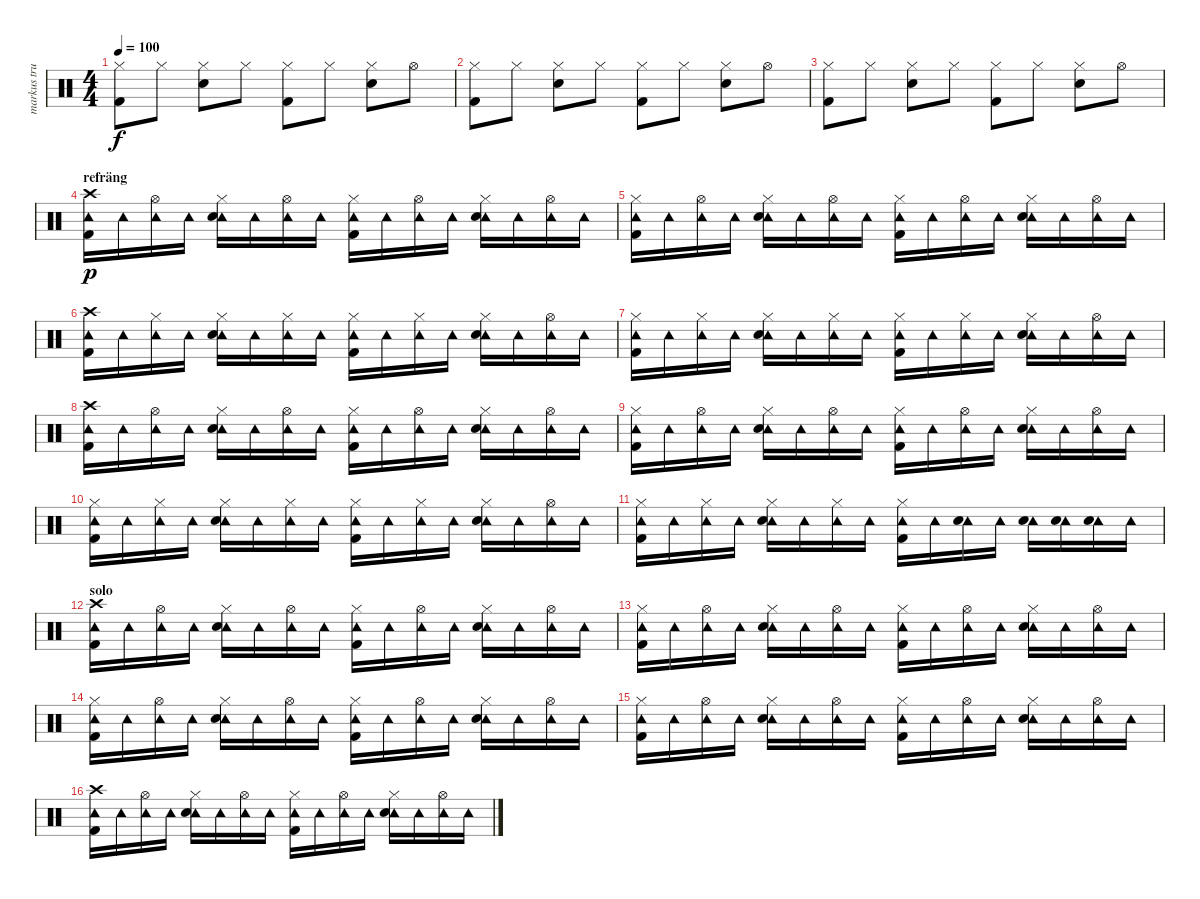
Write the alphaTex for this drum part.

\track ("markus trummor" "markus tru") {instrument percussion}
\staff {score}
\articulation defaults
\ts (4 4)
\tempo 100
\clef neutral
\ks c
("Hi-Hat (closed)" "Kick (hit) 2").8{dy f} "Hi-Hat (closed)".8 ("Hi-Hat (closed)" "Snare (hit) 2").8 "Hi-Hat (closed)".8 ("Hi-Hat (closed)" "Kick (hit) 2").8 "Hi-Hat (closed)".8 ("Hi-Hat (closed)" "Snare (hit) 2").8 "Hi-Hat (open)".8 |
("Hi-Hat (closed)" "Kick (hit) 2").8 "Hi-Hat (closed)".8 ("Hi-Hat (closed)" "Snare (hit) 2").8 "Hi-Hat (closed)".8 ("Hi-Hat (closed)" "Kick (hit) 2").8 "Hi-Hat (closed)".8 ("Hi-Hat (closed)" "Snare (hit) 2").8 "Hi-Hat (open)".8 |
("Hi-Hat (closed)" "Kick (hit) 2").8 "Hi-Hat (closed)".8 ("Hi-Hat (closed)" "Snare (hit) 2").8 "Hi-Hat (closed)".8 ("Hi-Hat (closed)" "Kick (hit) 2").8 "Hi-Hat (closed)".8 ("Hi-Hat (closed)" "Snare (hit) 2").8 "Hi-Hat (open)".8 |
\section ("" "refräng")
("Tambourine (hit)" "Crash high (hit)" "Kick (hit) 2").16{dy p} "Tambourine (hit)".16 ("Tambourine (hit)" "Hi-Hat (open)").16 "Tambourine (hit)".16 ("Tambourine (hit)" "Hi-Hat (closed)" "Snare (hit) 2").16 "Tambourine (hit)".16 ("Tambourine (hit)" "Hi-Hat (open)").16 "Tambourine (hit)".16 ("Tambourine (hit)" "Hi-Hat (closed)" "Kick (hit) 2").16 "Tambourine (hit)".16 ("Tambourine (hit)" "Hi-Hat (open)").16 "Tambourine (hit)".16 ("Tambourine (hit)" "Hi-Hat (closed)" "Snare (hit) 2").16 "Tambourine (hit)".16 ("Tambourine (hit)" "Hi-Hat (open)").16 "Tambourine (hit)".16 |
("Tambourine (hit)" "Hi-Hat (closed)" "Kick (hit) 2").16 "Tambourine (hit)".16 ("Tambourine (hit)" "Hi-Hat (open)").16 "Tambourine (hit)".16 ("Tambourine (hit)" "Hi-Hat (closed)" "Snare (hit) 2").16 "Tambourine (hit)".16 ("Tambourine (hit)" "Hi-Hat (open)").16 "Tambourine (hit)".16 ("Tambourine (hit)" "Hi-Hat (closed)" "Kick (hit) 2").16 "Tambourine (hit)".16 ("Tambourine (hit)" "Hi-Hat (open)").16 "Tambourine (hit)".16 ("Tambourine (hit)" "Hi-Hat (closed)" "Snare (hit) 2").16 "Tambourine (hit)".16 ("Tambourine (hit)" "Hi-Hat (open)").16 "Tambourine (hit)".16 |
("Tambourine (hit)" "Crash high (hit)" "Kick (hit) 2").16 "Tambourine (hit)".16 ("Tambourine (hit)" "Hi-Hat (closed)").16 "Tambourine (hit)".16 ("Tambourine (hit)" "Hi-Hat (closed)" "Snare (hit) 2").16 "Tambourine (hit)".16 ("Tambourine (hit)" "Hi-Hat (closed)").16 "Tambourine (hit)".16 ("Tambourine (hit)" "Hi-Hat (closed)" "Kick (hit) 2").16 "Tambourine (hit)".16 ("Tambourine (hit)" "Hi-Hat (closed)").16 "Tambourine (hit)".16 ("Tambourine (hit)" "Hi-Hat (closed)" "Snare (hit) 2").16 "Tambourine (hit)".16 ("Tambourine (hit)" "Hi-Hat (open)").16 "Tambourine (hit)".16 |
("Tambourine (hit)" "Hi-Hat (closed)" "Kick (hit) 2").16 "Tambourine (hit)".16 ("Tambourine (hit)" "Hi-Hat (closed)").16 "Tambourine (hit)".16 ("Tambourine (hit)" "Hi-Hat (closed)" "Snare (hit) 2").16 "Tambourine (hit)".16 ("Tambourine (hit)" "Hi-Hat (closed)").16 "Tambourine (hit)".16 ("Tambourine (hit)" "Hi-Hat (closed)" "Kick (hit) 2").16 "Tambourine (hit)".16 ("Tambourine (hit)" "Hi-Hat (closed)").16 "Tambourine (hit)".16 ("Tambourine (hit)" "Hi-Hat (closed)" "Snare (hit) 2").16 "Tambourine (hit)".16 ("Tambourine (hit)" "Hi-Hat (open)").16 "Tambourine (hit)".16 |
("Tambourine (hit)" "Crash high (hit)" "Kick (hit) 2").16 "Tambourine (hit)".16 ("Tambourine (hit)" "Hi-Hat (open)").16 "Tambourine (hit)".16 ("Tambourine (hit)" "Hi-Hat (closed)" "Snare (hit) 2").16 "Tambourine (hit)".16 ("Tambourine (hit)" "Hi-Hat (open)").16 "Tambourine (hit)".16 ("Tambourine (hit)" "Hi-Hat (closed)" "Kick (hit) 2").16 "Tambourine (hit)".16 ("Tambourine (hit)" "Hi-Hat (open)").16 "Tambourine (hit)".16 ("Tambourine (hit)" "Hi-Hat (closed)" "Snare (hit) 2").16 "Tambourine (hit)".16 ("Tambourine (hit)" "Hi-Hat (open)").16 "Tambourine (hit)".16 |
("Tambourine (hit)" "Hi-Hat (closed)" "Kick (hit) 2").16 "Tambourine (hit)".16 ("Tambourine (hit)" "Hi-Hat (open)").16 "Tambourine (hit)".16 ("Tambourine (hit)" "Hi-Hat (closed)" "Snare (hit) 2").16 "Tambourine (hit)".16 ("Tambourine (hit)" "Hi-Hat (open)").16 "Tambourine (hit)".16 ("Tambourine (hit)" "Hi-Hat (closed)" "Kick (hit) 2").16 "Tambourine (hit)".16 ("Tambourine (hit)" "Hi-Hat (open)").16 "Tambourine (hit)".16 ("Tambourine (hit)" "Hi-Hat (closed)" "Snare (hit) 2").16 "Tambourine (hit)".16 ("Tambourine (hit)" "Hi-Hat (open)").16 "Tambourine (hit)".16 |
("Tambourine (hit)" "Hi-Hat (closed)" "Kick (hit) 2").16 "Tambourine (hit)".16 ("Tambourine (hit)" "Hi-Hat (closed)").16 "Tambourine (hit)".16 ("Tambourine (hit)" "Hi-Hat (closed)" "Snare (hit) 2").16 "Tambourine (hit)".16 ("Tambourine (hit)" "Hi-Hat (closed)").16 "Tambourine (hit)".16 ("Tambourine (hit)" "Hi-Hat (closed)" "Kick (hit) 2").16 "Tambourine (hit)".16 ("Tambourine (hit)" "Hi-Hat (closed)").16 "Tambourine (hit)".16 ("Tambourine (hit)" "Hi-Hat (closed)" "Snare (hit) 2").16 "Tambourine (hit)".16 ("Tambourine (hit)" "Hi-Hat (open)").16 "Tambourine (hit)".16 |
("Tambourine (hit)" "Hi-Hat (closed)" "Kick (hit) 2").16 "Tambourine (hit)".16 ("Tambourine (hit)" "Hi-Hat (closed)").16 "Tambourine (hit)".16 ("Tambourine (hit)" "Hi-Hat (closed)" "Snare (hit) 2").16 "Tambourine (hit)".16 ("Tambourine (hit)" "Hi-Hat (closed)").16 "Tambourine (hit)".16 ("Tambourine (hit)" "Hi-Hat (closed)" "Kick (hit) 2").16 "Tambourine (hit)".16 ("Tambourine (hit)" "Snare (hit) 2").16 "Tambourine (hit)".16 ("Tambourine (hit)" "Snare (hit) 2").16 ("Tambourine (hit)" "Snare (hit) 2").16 ("Tambourine (hit)" "Snare (hit) 2").16 "Tambourine (hit)".16 |
\section ("" "solo")
("Tambourine (hit)" "Crash high (hit)" "Kick (hit) 2").16 "Tambourine (hit)".16 ("Tambourine (hit)" "Hi-Hat (open)").16 "Tambourine (hit)".16 ("Tambourine (hit)" "Hi-Hat (closed)" "Snare (hit) 2").16 "Tambourine (hit)".16 ("Tambourine (hit)" "Hi-Hat (open)").16 "Tambourine (hit)".16 ("Tambourine (hit)" "Hi-Hat (closed)" "Kick (hit) 2").16 "Tambourine (hit)".16 ("Tambourine (hit)" "Hi-Hat (open)").16 "Tambourine (hit)".16 ("Tambourine (hit)" "Hi-Hat (closed)" "Snare (hit) 2").16 "Tambourine (hit)".16 ("Tambourine (hit)" "Hi-Hat (open)").16 "Tambourine (hit)".16 |
("Tambourine (hit)" "Hi-Hat (closed)" "Kick (hit) 2").16 "Tambourine (hit)".16 ("Tambourine (hit)" "Hi-Hat (open)").16 "Tambourine (hit)".16 ("Tambourine (hit)" "Hi-Hat (closed)" "Snare (hit) 2").16 "Tambourine (hit)".16 ("Tambourine (hit)" "Hi-Hat (open)").16 "Tambourine (hit)".16 ("Tambourine (hit)" "Hi-Hat (closed)" "Kick (hit) 2").16 "Tambourine (hit)".16 ("Tambourine (hit)" "Hi-Hat (open)").16 "Tambourine (hit)".16 ("Tambourine (hit)" "Hi-Hat (closed)" "Snare (hit) 2").16 "Tambourine (hit)".16 ("Tambourine (hit)" "Hi-Hat (open)").16 "Tambourine (hit)".16 |
("Tambourine (hit)" "Hi-Hat (closed)" "Kick (hit) 2").16 "Tambourine (hit)".16 ("Tambourine (hit)" "Hi-Hat (open)").16 "Tambourine (hit)".16 ("Tambourine (hit)" "Hi-Hat (closed)" "Snare (hit) 2").16 "Tambourine (hit)".16 ("Tambourine (hit)" "Hi-Hat (open)").16 "Tambourine (hit)".16 ("Tambourine (hit)" "Hi-Hat (closed)" "Kick (hit) 2").16 "Tambourine (hit)".16 ("Tambourine (hit)" "Hi-Hat (open)").16 "Tambourine (hit)".16 ("Tambourine (hit)" "Hi-Hat (closed)" "Snare (hit) 2").16 "Tambourine (hit)".16 ("Tambourine (hit)" "Hi-Hat (open)").16 "Tambourine (hit)".16 |
("Tambourine (hit)" "Hi-Hat (closed)" "Kick (hit) 2").16 "Tambourine (hit)".16 ("Tambourine (hit)" "Hi-Hat (open)").16 "Tambourine (hit)".16 ("Tambourine (hit)" "Hi-Hat (closed)" "Snare (hit) 2").16 "Tambourine (hit)".16 ("Tambourine (hit)" "Hi-Hat (open)").16 "Tambourine (hit)".16 ("Tambourine (hit)" "Hi-Hat (closed)" "Kick (hit) 2").16 "Tambourine (hit)".16 ("Tambourine (hit)" "Hi-Hat (open)").16 "Tambourine (hit)".16 ("Tambourine (hit)" "Hi-Hat (closed)" "Snare (hit) 2").16 "Tambourine (hit)".16 ("Tambourine (hit)" "Hi-Hat (open)").16 "Tambourine (hit)".16 |
("Tambourine (hit)" "Crash high (hit)" "Kick (hit) 2").16 "Tambourine (hit)".16 ("Tambourine (hit)" "Hi-Hat (open)").16 "Tambourine (hit)".16 ("Tambourine (hit)" "Hi-Hat (closed)" "Snare (hit) 2").16 "Tambourine (hit)".16 ("Tambourine (hit)" "Hi-Hat (open)").16 "Tambourine (hit)".16 ("Tambourine (hit)" "Hi-Hat (closed)" "Kick (hit) 2").16 "Tambourine (hit)".16 ("Tambourine (hit)" "Hi-Hat (open)").16 "Tambourine (hit)".16 ("Tambourine (hit)" "Hi-Hat (closed)" "Snare (hit) 2").16 "Tambourine (hit)".16 ("Tambourine (hit)" "Hi-Hat (open)").16 "Tambourine (hit)".16
